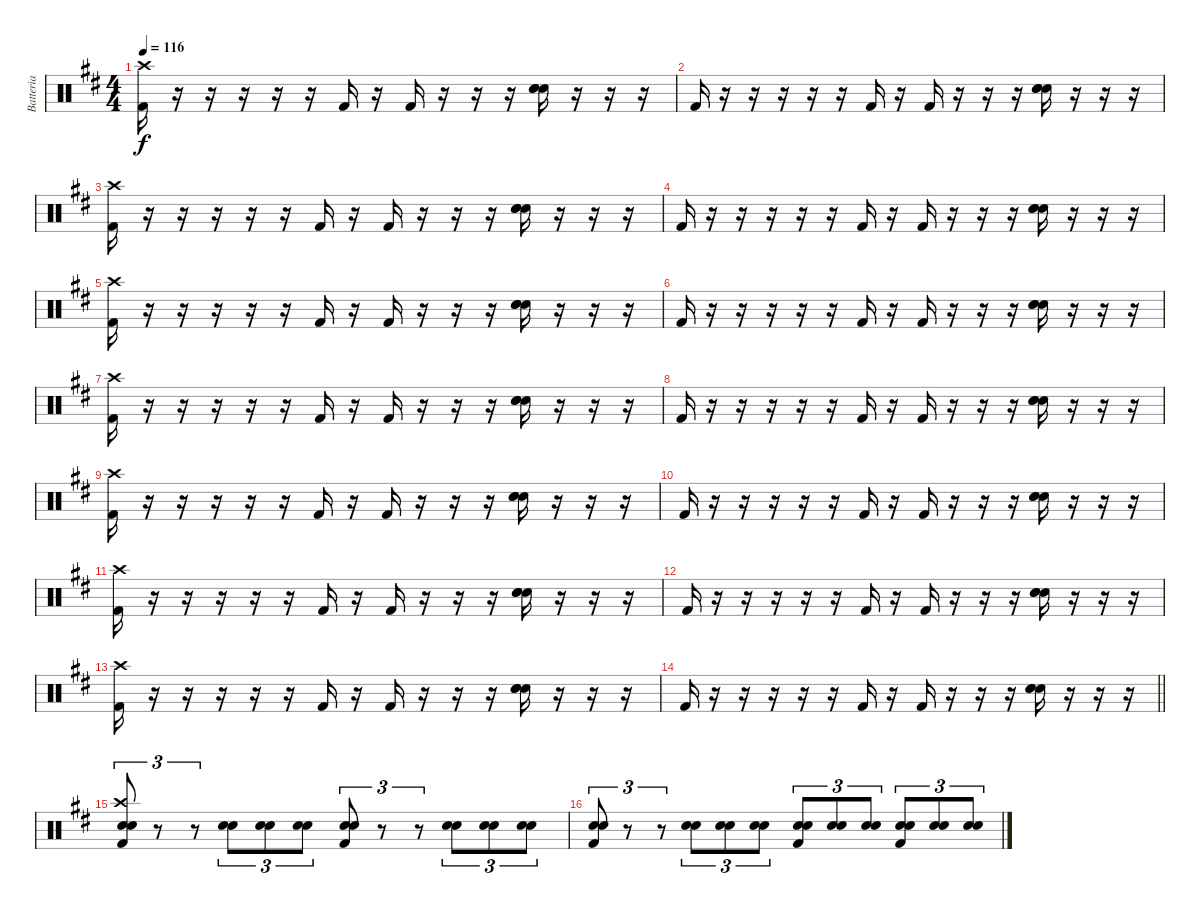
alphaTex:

\track ("Batteria" "Batteria") {instrument percussion}
\staff {score}
\articulation defaults
\ts (4 4)
\tempo 116
\clef neutral
\ks d
("Kick (hit) 2" "Crash high (hit)").16{dy f} r.16 r.16 r.16 r.16 r.16 "Kick (hit) 2".16 r.16 "Kick (hit) 2".16 r.16 r.16 r.16 ("Snare (hit) 2" "Hand Clap (hit)" "Hand Clap (hit)").16 r.16 r.16 r.16 |
"Kick (hit) 2".16 r.16 r.16 r.16 r.16 r.16 "Kick (hit) 2".16 r.16 "Kick (hit) 2".16 r.16 r.16 r.16 ("Snare (hit) 2" "Hand Clap (hit)" "Hand Clap (hit)").16 r.16 r.16 r.16 |
("Kick (hit) 2" "Crash high (hit)").16 r.16 r.16 r.16 r.16 r.16 "Kick (hit) 2".16 r.16 "Kick (hit) 2".16 r.16 r.16 r.16 ("Snare (hit) 2" "Hand Clap (hit)" "Hand Clap (hit)").16 r.16 r.16 r.16 |
"Kick (hit) 2".16 r.16 r.16 r.16 r.16 r.16 "Kick (hit) 2".16 r.16 "Kick (hit) 2".16 r.16 r.16 r.16 ("Snare (hit) 2" "Hand Clap (hit)" "Hand Clap (hit)").16 r.16 r.16 r.16 |
("Kick (hit) 2" "Crash high (hit)").16 r.16 r.16 r.16 r.16 r.16 "Kick (hit) 2".16 r.16 "Kick (hit) 2".16 r.16 r.16 r.16 ("Snare (hit) 2" "Hand Clap (hit)" "Hand Clap (hit)").16 r.16 r.16 r.16 |
"Kick (hit) 2".16 r.16 r.16 r.16 r.16 r.16 "Kick (hit) 2".16 r.16 "Kick (hit) 2".16 r.16 r.16 r.16 ("Snare (hit) 2" "Hand Clap (hit)" "Hand Clap (hit)").16 r.16 r.16 r.16 |
("Kick (hit) 2" "Crash high (hit)").16 r.16 r.16 r.16 r.16 r.16 "Kick (hit) 2".16 r.16 "Kick (hit) 2".16 r.16 r.16 r.16 ("Snare (hit) 2" "Hand Clap (hit)" "Hand Clap (hit)").16 r.16 r.16 r.16 |
"Kick (hit) 2".16 r.16 r.16 r.16 r.16 r.16 "Kick (hit) 2".16 r.16 "Kick (hit) 2".16 r.16 r.16 r.16 ("Snare (hit) 2" "Hand Clap (hit)" "Hand Clap (hit)").16 r.16 r.16 r.16 |
("Kick (hit) 2" "Crash high (hit)").16 r.16 r.16 r.16 r.16 r.16 "Kick (hit) 2".16 r.16 "Kick (hit) 2".16 r.16 r.16 r.16 ("Snare (hit) 2" "Hand Clap (hit)" "Hand Clap (hit)").16 r.16 r.16 r.16 |
"Kick (hit) 2".16 r.16 r.16 r.16 r.16 r.16 "Kick (hit) 2".16 r.16 "Kick (hit) 2".16 r.16 r.16 r.16 ("Snare (hit) 2" "Hand Clap (hit)" "Hand Clap (hit)").16 r.16 r.16 r.16 |
("Kick (hit) 2" "Crash high (hit)").16 r.16 r.16 r.16 r.16 r.16 "Kick (hit) 2".16 r.16 "Kick (hit) 2".16 r.16 r.16 r.16 ("Snare (hit) 2" "Hand Clap (hit)" "Hand Clap (hit)").16 r.16 r.16 r.16 |
"Kick (hit) 2".16 r.16 r.16 r.16 r.16 r.16 "Kick (hit) 2".16 r.16 "Kick (hit) 2".16 r.16 r.16 r.16 ("Snare (hit) 2" "Hand Clap (hit)" "Hand Clap (hit)").16 r.16 r.16 r.16 |
("Kick (hit) 2" "Crash high (hit)").16 r.16 r.16 r.16 r.16 r.16 "Kick (hit) 2".16 r.16 "Kick (hit) 2".16 r.16 r.16 r.16 ("Snare (hit) 2" "Hand Clap (hit)" "Hand Clap (hit)").16 r.16 r.16 r.16 |
\barLineRight lightlight "Kick (hit) 2".16
r.16 r.16 r.16 r.16 r.16 "Kick (hit) 2".16 r.16 "Kick (hit) 2".16 r.16 r.16 r.16 ("Snare (hit) 2" "Hand Clap (hit)" "Hand Clap (hit)").16 r.16 r.16 r.16 |
("Kick (hit) 2" "Snare (hit) 2" "Snare (hit) 2" "Crash high (hit)").8{tu (3 2)} r.8{tu (3 2)} r.8{tu (3 2)} ("Snare (hit) 2" "Snare (hit) 2").8{tu (3 2)} ("Snare (hit) 2" "Snare (hit) 2").8{tu (3 2)} ("Snare (hit) 2" "Snare (hit) 2").8{tu (3 2)} ("Kick (hit) 2" "Snare (hit) 2" "Snare (hit) 2").8{tu (3 2)} r.8{tu (3 2)} r.8{tu (3 2)} ("Snare (hit) 2" "Snare (hit) 2").8{tu (3 2)} ("Snare (hit) 2" "Snare (hit) 2").8{tu (3 2)} ("Snare (hit) 2" "Snare (hit) 2").8{tu (3 2)} |
("Kick (hit) 2" "Snare (hit) 2" "Snare (hit) 2").8{tu (3 2)} r.8{tu (3 2)} r.8{tu (3 2)} ("Snare (hit) 2" "Snare (hit) 2").8{tu (3 2)} ("Snare (hit) 2" "Snare (hit) 2").8{tu (3 2)} ("Snare (hit) 2" "Snare (hit) 2").8{tu (3 2)} ("Kick (hit) 2" "Snare (hit) 2" "Snare (hit) 2").8{tu (3 2)} ("Snare (hit) 2" "Snare (hit) 2").8{tu (3 2)} ("Snare (hit) 2" "Snare (hit) 2").8{tu (3 2)} ("Kick (hit) 2" "Snare (hit) 2" "Snare (hit) 2").8{tu (3 2)} ("Snare (hit) 2" "Snare (hit) 2").8{tu (3 2)} ("Snare (hit) 2" "Snare (hit) 2").8{tu (3 2)}
